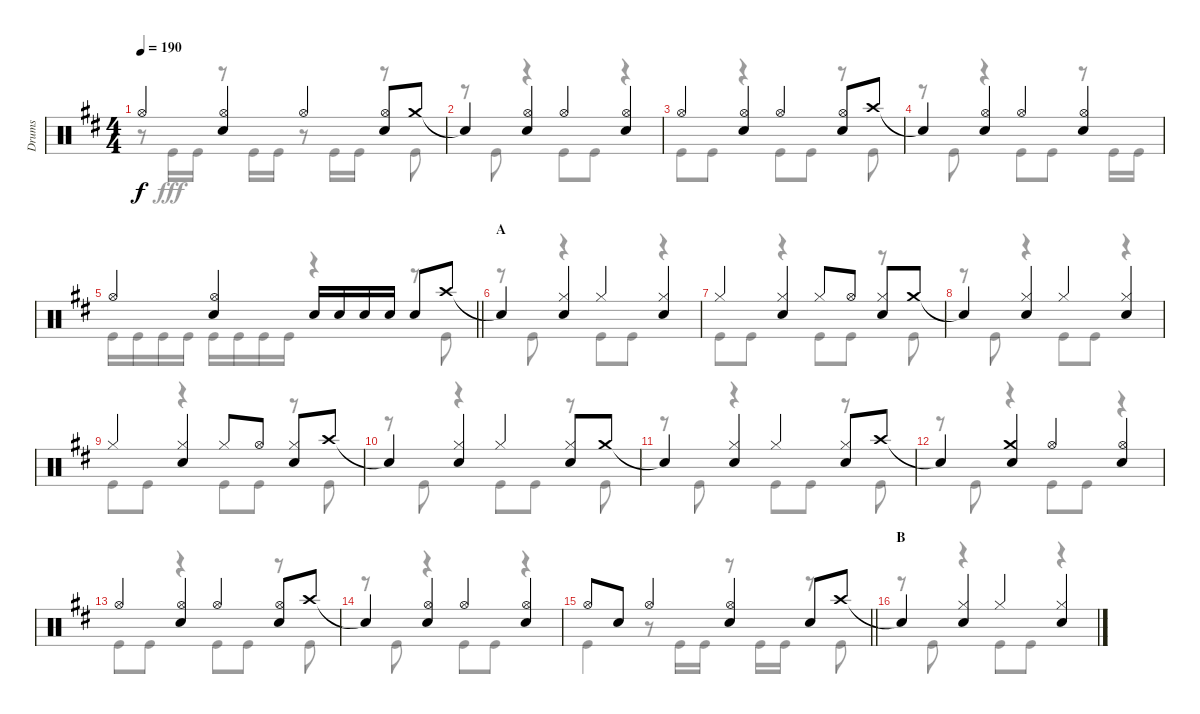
\track ("Drums" "Drums") {instrument percussion}
\staff {score}
\articulation defaults
\voice
\ts (4 4)
\tempo 190
\clef neutral
\ks d "Hi-Hat (open)".4{dy f}
("Hi-Hat (open)" "Snare (hit) 2").4 "Hi-Hat (open)".4 ("Hi-Hat (open)" "Snare (hit) 2").8 "Crash medium (hit)".8 |
"Snare (hit)"{t}.4 ("Hi-Hat (open)" "Snare (hit) 2").4 "Hi-Hat (open)".4 ("Hi-Hat (open)" "Snare (hit) 2").4 |
"Hi-Hat (open)".4 ("Hi-Hat (open)" "Snare (hit) 2").4 "Hi-Hat (open)".4 ("Hi-Hat (open)" "Snare (hit) 2").8 "Crash high (hit)".8 |
"Snare (hit)"{t}.4 ("Hi-Hat (open)" "Snare (hit) 2").4 "Hi-Hat (open)".4 ("Hi-Hat (open)" "Snare (hit) 2").4 |
\barLineRight lightlight "Hi-Hat (open)".4
("Hi-Hat (open)" "Snare (hit) 2").4 "Snare (hit) 2".16 "Snare (hit) 2".16 "Snare (hit) 2".16 "Snare (hit) 2".16 "Snare (hit) 2".8 "Crash high (hit)".8 |
\section ("" "A")
"Snare (hit)"{t}.4 ("Hi-Hat (closed)" "Snare (hit) 2").4 "Hi-Hat (closed)".4 ("Hi-Hat (closed)" "Snare (hit) 2").4 |
"Hi-Hat (closed)".4 ("Hi-Hat (closed)" "Snare (hit) 2").4 "Hi-Hat (closed)".8 "Hi-Hat (open)".8 ("Hi-Hat (closed)" "Snare (hit) 2").8 "Crash medium (hit)".8 |
"Snare (hit)"{t}.4 ("Hi-Hat (closed)" "Snare (hit) 2").4 "Hi-Hat (closed)".4 ("Hi-Hat (closed)" "Snare (hit) 2").4 |
"Hi-Hat (closed)".4 ("Hi-Hat (closed)" "Snare (hit) 2").4 "Hi-Hat (closed)".8 "Hi-Hat (open)".8 ("Hi-Hat (closed)" "Snare (hit) 2").8 "Crash high (hit)".8 |
"Snare (hit)"{t}.4 ("Hi-Hat (closed)" "Snare (hit) 2").4 "Hi-Hat (closed)".4 ("Hi-Hat (closed)" "Snare (hit) 2").8 "Crash medium (hit)".8 |
"Snare (hit)"{t}.4 ("Hi-Hat (closed)" "Snare (hit) 2").4 "Hi-Hat (closed)".4 ("Hi-Hat (closed)" "Snare (hit) 2").8 "Crash high (hit)".8 |
"Snare (hit)"{t}.4 ("Crash medium (hit)" "Snare (hit) 2").4 "Hi-Hat (open)".4 ("Hi-Hat (open)" "Snare (hit) 2").4 |
"Hi-Hat (open)".4 ("Hi-Hat (open)" "Snare (hit) 2").4 "Hi-Hat (open)".4 ("Hi-Hat (open)" "Snare (hit) 2").8 "Crash high (hit)".8 |
"Snare (hit)"{t}.4 ("Hi-Hat (open)" "Snare (hit) 2").4 "Hi-Hat (open)".4 ("Hi-Hat (open)" "Snare (hit) 2").4 |
\barLineRight lightlight "Hi-Hat (open)".8 "Snare (hit) 2".8 "Hi-Hat (open)".4
("Hi-Hat (open)" "Snare (hit) 2").4 "Snare (hit) 2".8 "Crash high (hit)".8 |
\section ("" "B")
"Snare (hit)"{t}.4 ("Hi-Hat (closed)" "Snare (hit) 2").4 "Hi-Hat (closed)".4 ("Hi-Hat (closed)" "Snare (hit) 2").4
\voice
\clef neutral
\ottava regular
\simile none
\ks d
r.8{dy fff} "Kick (hit)".16 "Kick (hit)".16 r.8 "Kick (hit)".16 "Kick (hit)".16 r.8 "Kick (hit)".16 "Kick (hit)".16 r.8 "Kick (hit)".8 |
r.8 "Kick (hit)".8 r.4 "Kick (hit)".8 "Kick (hit)".8 r.4 |
"Kick (hit)".8 "Kick (hit)".8 r.4 "Kick (hit)".8 "Kick (hit)".8 r.8 "Kick (hit)".8 |
r.8 "Kick (hit)".8 r.4 "Kick (hit)".8 "Kick (hit)".8 r.8 "Kick (hit)".16 "Kick (hit)".16 |
\barLineRight lightlight "Kick (hit)".16 "Kick (hit)".16 "Kick (hit)".16 "Kick (hit)".16 "Kick (hit)".16 "Kick (hit)".16 "Kick (hit)".16 "Kick (hit)".16
r.4 r.8 "Kick (hit)".8 |
r.8 "Kick (hit)".8 r.4 "Kick (hit)".8 "Kick (hit)".8 r.4 |
"Kick (hit)".8 "Kick (hit)".8 r.4 "Kick (hit)".8 "Kick (hit)".8 r.8 "Kick (hit)".8 |
r.8 "Kick (hit)".8 r.4 "Kick (hit)".8 "Kick (hit)".8 r.4 |
"Kick (hit)".8 "Kick (hit)".8 r.4 "Kick (hit)".8 "Kick (hit)".8 r.8 "Kick (hit)".8 |
r.8 "Kick (hit)".8 r.4 "Kick (hit)".8 "Kick (hit)".8 r.8 "Kick (hit)".8 |
r.8 "Kick (hit)".8 r.4 "Kick (hit)".8 "Kick (hit)".8 r.8 "Kick (hit)".8 |
r.8 "Kick (hit)".8 r.4 "Kick (hit)".8 "Kick (hit)".8 r.4 |
"Kick (hit)".8 "Kick (hit)".8 r.4 "Kick (hit)".8 "Kick (hit)".8 r.8 "Kick (hit)".8 |
r.8 "Kick (hit)".8 r.4 "Kick (hit)".8 "Kick (hit)".8 r.4 |
\barLineRight lightlight "Kick (hit)".4
r.8 "Kick (hit)".16 "Kick (hit)".16 r.8 "Kick (hit)".16 "Kick (hit)".16 r.8 "Kick (hit)".8 |
r.8 "Kick (hit)".8 r.4 "Kick (hit)".8 "Kick (hit)".8 r.4
